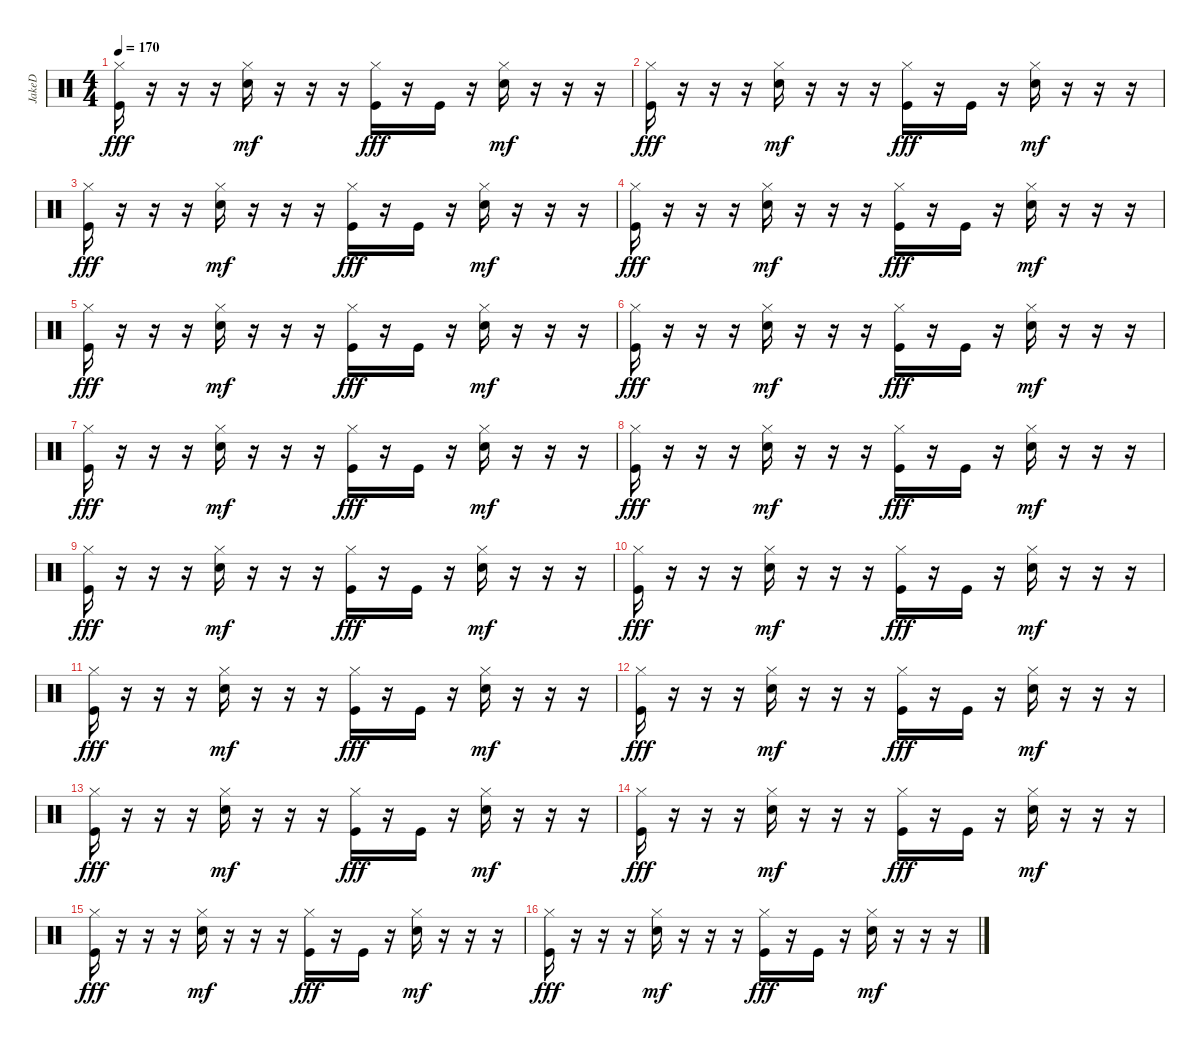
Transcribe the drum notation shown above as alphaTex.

\track ("JakeD" "JakeD") {instrument percussion}
\staff {score}
\articulation defaults
\ts (4 4)
\tempo 170
\clef neutral
\ks c
("Hi-Hat (closed)" "Kick (hit)").16{dy fff} r.16 r.16 r.16 ("Hi-Hat (closed)" "Electric Snare (hit)").16{dy mf} r.16 r.16 r.16 ("Hi-Hat (closed)" "Kick (hit)").16{dy fff} r.16 "Kick (hit)".16 r.16 ("Hi-Hat (closed)" "Electric Snare (hit)").16{dy mf} r.16 r.16 r.16 |
("Hi-Hat (closed)" "Kick (hit)").16{dy fff} r.16 r.16 r.16 ("Hi-Hat (closed)" "Electric Snare (hit)").16{dy mf} r.16 r.16 r.16 ("Hi-Hat (closed)" "Kick (hit)").16{dy fff} r.16 "Kick (hit)".16 r.16 ("Hi-Hat (closed)" "Electric Snare (hit)").16{dy mf} r.16 r.16 r.16 |
("Hi-Hat (closed)" "Kick (hit)").16{dy fff} r.16 r.16 r.16 ("Hi-Hat (closed)" "Electric Snare (hit)").16{dy mf} r.16 r.16 r.16 ("Hi-Hat (closed)" "Kick (hit)").16{dy fff} r.16 "Kick (hit)".16 r.16 ("Hi-Hat (closed)" "Electric Snare (hit)").16{dy mf} r.16 r.16 r.16 |
("Hi-Hat (closed)" "Kick (hit)").16{dy fff} r.16 r.16 r.16 ("Hi-Hat (closed)" "Electric Snare (hit)").16{dy mf} r.16 r.16 r.16 ("Hi-Hat (closed)" "Kick (hit)").16{dy fff} r.16 "Kick (hit)".16 r.16 ("Hi-Hat (closed)" "Electric Snare (hit)").16{dy mf} r.16 r.16 r.16 |
("Hi-Hat (closed)" "Kick (hit)").16{dy fff} r.16 r.16 r.16 ("Hi-Hat (closed)" "Electric Snare (hit)").16{dy mf} r.16 r.16 r.16 ("Hi-Hat (closed)" "Kick (hit)").16{dy fff} r.16 "Kick (hit)".16 r.16 ("Hi-Hat (closed)" "Electric Snare (hit)").16{dy mf} r.16 r.16 r.16 |
("Hi-Hat (closed)" "Kick (hit)").16{dy fff} r.16 r.16 r.16 ("Hi-Hat (closed)" "Electric Snare (hit)").16{dy mf} r.16 r.16 r.16 ("Hi-Hat (closed)" "Kick (hit)").16{dy fff} r.16 "Kick (hit)".16 r.16 ("Hi-Hat (closed)" "Electric Snare (hit)").16{dy mf} r.16 r.16 r.16 |
("Hi-Hat (closed)" "Kick (hit)").16{dy fff} r.16 r.16 r.16 ("Hi-Hat (closed)" "Electric Snare (hit)").16{dy mf} r.16 r.16 r.16 ("Hi-Hat (closed)" "Kick (hit)").16{dy fff} r.16 "Kick (hit)".16 r.16 ("Hi-Hat (closed)" "Electric Snare (hit)").16{dy mf} r.16 r.16 r.16 |
("Hi-Hat (closed)" "Kick (hit)").16{dy fff} r.16 r.16 r.16 ("Hi-Hat (closed)" "Electric Snare (hit)").16{dy mf} r.16 r.16 r.16 ("Hi-Hat (closed)" "Kick (hit)").16{dy fff} r.16 "Kick (hit)".16 r.16 ("Hi-Hat (closed)" "Electric Snare (hit)").16{dy mf} r.16 r.16 r.16 |
("Hi-Hat (closed)" "Kick (hit)").16{dy fff} r.16 r.16 r.16 ("Hi-Hat (closed)" "Electric Snare (hit)").16{dy mf} r.16 r.16 r.16 ("Hi-Hat (closed)" "Kick (hit)").16{dy fff} r.16 "Kick (hit)".16 r.16 ("Hi-Hat (closed)" "Electric Snare (hit)").16{dy mf} r.16 r.16 r.16 |
("Hi-Hat (closed)" "Kick (hit)").16{dy fff} r.16 r.16 r.16 ("Hi-Hat (closed)" "Electric Snare (hit)").16{dy mf} r.16 r.16 r.16 ("Hi-Hat (closed)" "Kick (hit)").16{dy fff} r.16 "Kick (hit)".16 r.16 ("Hi-Hat (closed)" "Electric Snare (hit)").16{dy mf} r.16 r.16 r.16 |
("Hi-Hat (closed)" "Kick (hit)").16{dy fff} r.16 r.16 r.16 ("Hi-Hat (closed)" "Electric Snare (hit)").16{dy mf} r.16 r.16 r.16 ("Hi-Hat (closed)" "Kick (hit)").16{dy fff} r.16 "Kick (hit)".16 r.16 ("Hi-Hat (closed)" "Electric Snare (hit)").16{dy mf} r.16 r.16 r.16 |
("Hi-Hat (closed)" "Kick (hit)").16{dy fff} r.16 r.16 r.16 ("Hi-Hat (closed)" "Electric Snare (hit)").16{dy mf} r.16 r.16 r.16 ("Hi-Hat (closed)" "Kick (hit)").16{dy fff} r.16 "Kick (hit)".16 r.16 ("Hi-Hat (closed)" "Electric Snare (hit)").16{dy mf} r.16 r.16 r.16 |
("Hi-Hat (closed)" "Kick (hit)").16{dy fff} r.16 r.16 r.16 ("Hi-Hat (closed)" "Electric Snare (hit)").16{dy mf} r.16 r.16 r.16 ("Hi-Hat (closed)" "Kick (hit)").16{dy fff} r.16 "Kick (hit)".16 r.16 ("Hi-Hat (closed)" "Electric Snare (hit)").16{dy mf} r.16 r.16 r.16 |
("Hi-Hat (closed)" "Kick (hit)").16{dy fff} r.16 r.16 r.16 ("Hi-Hat (closed)" "Electric Snare (hit)").16{dy mf} r.16 r.16 r.16 ("Hi-Hat (closed)" "Kick (hit)").16{dy fff} r.16 "Kick (hit)".16 r.16 ("Hi-Hat (closed)" "Electric Snare (hit)").16{dy mf} r.16 r.16 r.16 |
("Hi-Hat (closed)" "Kick (hit)").16{dy fff} r.16 r.16 r.16 ("Hi-Hat (closed)" "Electric Snare (hit)").16{dy mf} r.16 r.16 r.16 ("Hi-Hat (closed)" "Kick (hit)").16{dy fff} r.16 "Kick (hit)".16 r.16 ("Hi-Hat (closed)" "Electric Snare (hit)").16{dy mf} r.16 r.16 r.16 |
("Hi-Hat (closed)" "Kick (hit)").16{dy fff} r.16 r.16 r.16 ("Hi-Hat (closed)" "Electric Snare (hit)").16{dy mf} r.16 r.16 r.16 ("Hi-Hat (closed)" "Kick (hit)").16{dy fff} r.16 "Kick (hit)".16 r.16 ("Hi-Hat (closed)" "Electric Snare (hit)").16{dy mf} r.16 r.16 r.16
